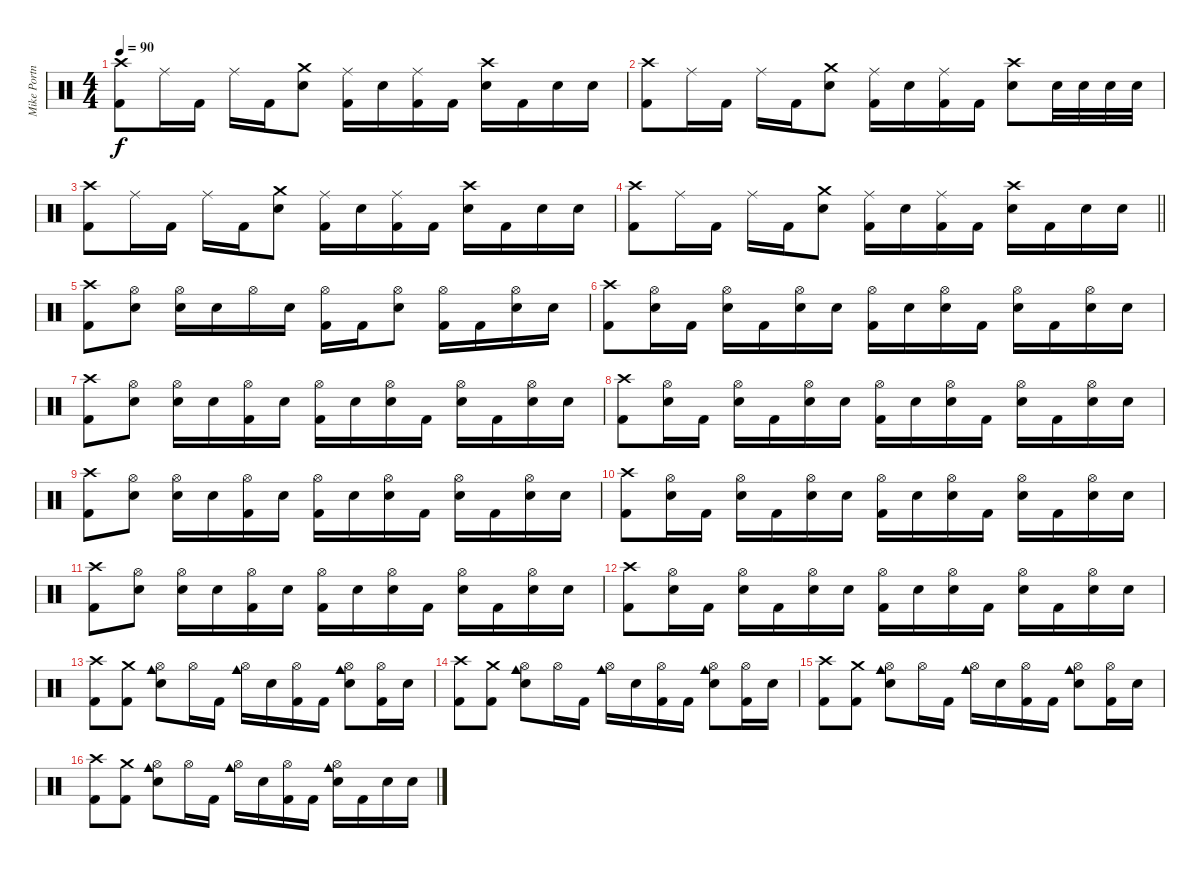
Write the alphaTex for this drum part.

\track ("Mike Portnoy" "Mike Portn") {instrument percussion}
\staff {score}
\articulation defaults
\ts (4 4)
\tempo 90
\clef neutral
\ks c
("Crash high (hit)" "Kick (hit) 2").8{dy f} "Ride (middle)".16 "Kick (hit) 2".16 "Ride (middle)".16 "Kick (hit) 2".16 ("Crash medium (hit)" "Snare (hit) 2").8 ("Ride (middle)" "Kick (hit) 2").16 "Snare (hit) 2".16 ("Ride (middle)" "Kick (hit) 2").16 "Kick (hit) 2".16 ("Crash high (hit)" "Snare (hit) 2").16 "Kick (hit) 2".16 "Snare (hit) 2".16 "Snare (hit) 2".16 |
("Crash high (hit)" "Kick (hit) 2").8 "Ride (middle)".16 "Kick (hit) 2".16 "Ride (middle)".16 "Kick (hit) 2".16 ("Crash medium (hit)" "Snare (hit) 2").8 ("Ride (middle)" "Kick (hit) 2").16 "Snare (hit) 2".16 ("Ride (middle)" "Kick (hit) 2").16 "Kick (hit) 2".16 ("Crash high (hit)" "Snare (hit) 2").8 "Snare (hit) 2".32 "Snare (hit) 2".32 "Snare (hit) 2".32 "Snare (hit) 2".32 |
("Crash high (hit)" "Kick (hit) 2").8 "Ride (middle)".16 "Kick (hit) 2".16 "Ride (middle)".16 "Kick (hit) 2".16 ("Crash medium (hit)" "Snare (hit) 2").8 ("Ride (middle)" "Kick (hit) 2").16 "Snare (hit) 2".16 ("Ride (middle)" "Kick (hit) 2").16 "Kick (hit) 2".16 ("Crash high (hit)" "Snare (hit) 2").16 "Kick (hit) 2".16 "Snare (hit) 2".16 "Snare (hit) 2".16 |
\barLineRight lightlight
("Crash high (hit)" "Kick (hit) 2").8 "Ride (middle)".16 "Kick (hit) 2".16 "Ride (middle)".16 "Kick (hit) 2".16 ("Crash medium (hit)" "Snare (hit) 2").8 ("Ride (middle)" "Kick (hit) 2").16 "Snare (hit) 2".16 ("Ride (middle)" "Kick (hit) 2").16 "Kick (hit) 2".16 ("Crash high (hit)" "Snare (hit) 2").16 "Kick (hit) 2".16 "Snare (hit) 2".16 "Snare (hit) 2".16 |
("Crash high (hit)" "Kick (hit) 2").8 ("Hi-Hat (open)" "Snare (hit) 2").8 ("Hi-Hat (open)" "Snare (hit) 2").16 "Snare (hit) 2".16 "Hi-Hat (open)".16 "Snare (hit) 2".16 ("Hi-Hat (open)" "Kick (hit) 2").16 "Kick (hit) 2".16 ("Hi-Hat (open)" "Snare (hit) 2").8 ("Hi-Hat (open)" "Kick (hit) 2").16 "Kick (hit) 2".16 ("Hi-Hat (open)" "Snare (hit) 2").16 "Snare (hit) 2".16 |
("Crash high (hit)" "Kick (hit) 2").8 ("Hi-Hat (open)" "Snare (hit) 2").16 "Kick (hit) 2".16 ("Hi-Hat (open)" "Snare (hit) 2").16 "Kick (hit) 2".16 ("Hi-Hat (open)" "Snare (hit) 2").16 "Snare (hit) 2".16 ("Hi-Hat (open)" "Kick (hit) 2").16 "Snare (hit) 2".16 ("Hi-Hat (open)" "Snare (hit) 2").16 "Kick (hit) 2".16 ("Hi-Hat (open)" "Snare (hit) 2").16 "Kick (hit) 2".16 ("Hi-Hat (open)" "Snare (hit) 2").16 "Snare (hit) 2".16 |
("Crash high (hit)" "Kick (hit) 2").8 ("Hi-Hat (open)" "Snare (hit) 2").8 ("Hi-Hat (open)" "Snare (hit) 2").16 "Snare (hit) 2".16 ("Hi-Hat (open)" "Kick (hit) 2").16 "Snare (hit) 2".16 ("Hi-Hat (open)" "Kick (hit) 2").16 "Snare (hit) 2".16 ("Hi-Hat (open)" "Snare (hit) 2").16 "Kick (hit) 2".16 ("Hi-Hat (open)" "Snare (hit) 2").16 "Kick (hit) 2".16 ("Hi-Hat (open)" "Snare (hit) 2").16 "Snare (hit) 2".16 |
("Crash high (hit)" "Kick (hit) 2").8 ("Hi-Hat (open)" "Snare (hit) 2").16 "Kick (hit) 2".16 ("Hi-Hat (open)" "Snare (hit) 2").16 "Kick (hit) 2".16 ("Hi-Hat (open)" "Snare (hit) 2").16 "Snare (hit) 2".16 ("Hi-Hat (open)" "Kick (hit) 2").16 "Snare (hit) 2".16 ("Hi-Hat (open)" "Snare (hit) 2").16 "Kick (hit) 2".16 ("Hi-Hat (open)" "Snare (hit) 2").16 "Kick (hit) 2".16 ("Hi-Hat (open)" "Snare (hit) 2").16 "Snare (hit) 2".16 |
("Crash high (hit)" "Kick (hit) 2").8 ("Hi-Hat (open)" "Snare (hit) 2").8 ("Hi-Hat (open)" "Snare (hit) 2").16 "Snare (hit) 2".16 ("Hi-Hat (open)" "Kick (hit) 2").16 "Snare (hit) 2".16 ("Hi-Hat (open)" "Kick (hit) 2").16 "Snare (hit) 2".16 ("Hi-Hat (open)" "Snare (hit) 2").16 "Kick (hit) 2".16 ("Hi-Hat (open)" "Snare (hit) 2").16 "Kick (hit) 2".16 ("Hi-Hat (open)" "Snare (hit) 2").16 "Snare (hit) 2".16 |
("Crash high (hit)" "Kick (hit) 2").8 ("Hi-Hat (open)" "Snare (hit) 2").16 "Kick (hit) 2".16 ("Hi-Hat (open)" "Snare (hit) 2").16 "Kick (hit) 2".16 ("Hi-Hat (open)" "Snare (hit) 2").16 "Snare (hit) 2".16 ("Hi-Hat (open)" "Kick (hit) 2").16 "Snare (hit) 2".16 ("Hi-Hat (open)" "Snare (hit) 2").16 "Kick (hit) 2".16 ("Hi-Hat (open)" "Snare (hit) 2").16 "Kick (hit) 2".16 ("Hi-Hat (open)" "Snare (hit) 2").16 "Snare (hit) 2".16 |
("Crash high (hit)" "Kick (hit) 2").8 ("Hi-Hat (open)" "Snare (hit) 2").8 ("Hi-Hat (open)" "Snare (hit) 2").16 "Snare (hit) 2".16 ("Hi-Hat (open)" "Kick (hit) 2").16 "Snare (hit) 2".16 ("Hi-Hat (open)" "Kick (hit) 2").16 "Snare (hit) 2".16 ("Hi-Hat (open)" "Snare (hit) 2").16 "Kick (hit) 2".16 ("Hi-Hat (open)" "Snare (hit) 2").16 "Kick (hit) 2".16 ("Hi-Hat (open)" "Snare (hit) 2").16 "Snare (hit) 2".16 |
("Crash high (hit)" "Kick (hit) 2").8 ("Hi-Hat (open)" "Snare (hit) 2").16 "Kick (hit) 2".16 ("Hi-Hat (open)" "Snare (hit) 2").16 "Kick (hit) 2".16 ("Hi-Hat (open)" "Snare (hit) 2").16 "Snare (hit) 2".16 ("Hi-Hat (open)" "Kick (hit) 2").16 "Snare (hit) 2".16 ("Hi-Hat (open)" "Snare (hit) 2").16 "Kick (hit) 2".16 ("Hi-Hat (open)" "Snare (hit) 2").16 "Kick (hit) 2".16 ("Hi-Hat (open)" "Snare (hit) 2").16 "Snare (hit) 2".16 |
("Crash high (hit)" "Kick (hit) 2").8 ("Crash medium (hit)" "Kick (hit) 2").8 ("Cowbell medium (hit)" "Hi-Hat (open)" "Snare (hit) 2").8 "Hi-Hat (open)".16 "Kick (hit) 2".16 ("Cowbell medium (hit)" "Hi-Hat (open)").16 "Snare (hit) 2".16 ("Hi-Hat (open)" "Kick (hit) 2").16 "Kick (hit) 2".16 ("Cowbell medium (hit)" "Hi-Hat (open)" "Snare (hit) 2").8 ("Hi-Hat (open)" "Kick (hit) 2").16 "Snare (hit) 2".16 |
("Crash high (hit)" "Kick (hit) 2").8 ("Crash medium (hit)" "Kick (hit) 2").8 ("Cowbell medium (hit)" "Hi-Hat (open)" "Snare (hit) 2").8 "Hi-Hat (open)".16 "Kick (hit) 2".16 ("Cowbell medium (hit)" "Hi-Hat (open)").16 "Snare (hit) 2".16 ("Hi-Hat (open)" "Kick (hit) 2").16 "Kick (hit) 2".16 ("Cowbell medium (hit)" "Hi-Hat (open)" "Snare (hit) 2").8 ("Hi-Hat (open)" "Kick (hit) 2").16 "Snare (hit) 2".16 |
("Crash high (hit)" "Kick (hit) 2").8 ("Crash medium (hit)" "Kick (hit) 2").8 ("Cowbell medium (hit)" "Hi-Hat (open)" "Snare (hit) 2").8 "Hi-Hat (open)".16 "Kick (hit) 2".16 ("Cowbell medium (hit)" "Hi-Hat (open)").16 "Snare (hit) 2".16 ("Hi-Hat (open)" "Kick (hit) 2").16 "Kick (hit) 2".16 ("Cowbell medium (hit)" "Hi-Hat (open)" "Snare (hit) 2").8 ("Hi-Hat (open)" "Kick (hit) 2").16 "Snare (hit) 2".16 |
("Crash high (hit)" "Kick (hit) 2").8 ("Crash medium (hit)" "Kick (hit) 2").8 ("Cowbell medium (hit)" "Hi-Hat (open)" "Snare (hit) 2").8 "Hi-Hat (open)".16 "Kick (hit) 2".16 ("Cowbell medium (hit)" "Hi-Hat (open)").16 "Snare (hit) 2".16 ("Hi-Hat (open)" "Kick (hit) 2").16 "Kick (hit) 2".16 ("Cowbell medium (hit)" "Hi-Hat (open)" "Snare (hit) 2").16 "Kick (hit) 2".16 "Snare (hit) 2".16 "Snare (hit) 2".16
